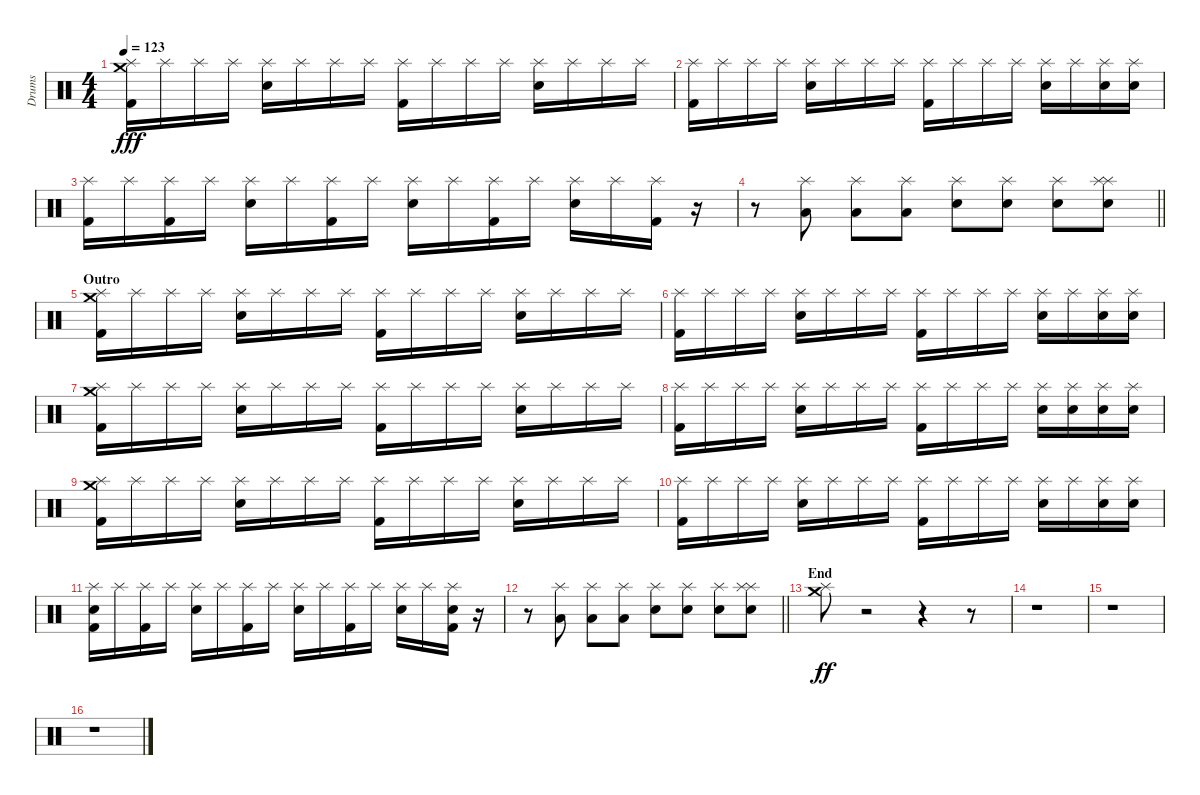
\track ("Drums" "Drums") {instrument percussion}
\staff {score}
\articulation defaults
\ts (4 4)
\tempo 123
\clef neutral
\ks c
("Crash medium (hit)" "Splash (hit)" "Kick (hit) 2").16{dy fff} "Splash (hit)".16 "Splash (hit)".16 "Splash (hit)".16 ("Splash (hit)" "Electric Snare (hit)").16 "Splash (hit)".16 "Splash (hit)".16 "Splash (hit)".16 ("Splash (hit)" "Kick (hit) 2").16 "Splash (hit)".16 "Splash (hit)".16 "Splash (hit)".16 ("Splash (hit)" "Electric Snare (hit)").16 "Splash (hit)".16 "Splash (hit)".16 "Splash (hit)".16 |
("Splash (hit)" "Kick (hit) 2").16 "Splash (hit)".16 "Splash (hit)".16 "Splash (hit)".16 ("Splash (hit)" "Electric Snare (hit)").16 "Splash (hit)".16 "Splash (hit)".16 "Splash (hit)".16 ("Splash (hit)" "Kick (hit) 2").16 "Splash (hit)".16 "Splash (hit)".16 "Splash (hit)".16 ("Splash (hit)" "Electric Snare (hit)").16 "Splash (hit)".16 ("Splash (hit)" "Electric Snare (hit)").16 ("Splash (hit)" "Electric Snare (hit)").16 |
("Splash (hit)" "Kick (hit) 2").16 "Splash (hit)".16 ("Splash (hit)" "Kick (hit) 2").16 "Splash (hit)".16 ("Splash (hit)" "Electric Snare (hit)").16 "Splash (hit)".16 ("Splash (hit)" "Kick (hit) 2").16 "Splash (hit)".16 ("Splash (hit)" "Electric Snare (hit)").16 "Splash (hit)".16 ("Splash (hit)" "Kick (hit) 2").16 "Splash (hit)".16 ("Splash (hit)" "Electric Snare (hit)").16 "Splash (hit)".16 ("Splash (hit)" "Kick (hit) 2").16 r.16 |
\barLineRight lightlight
r.8 ("Splash (hit)" "Low Floor Tom (hit)").8 ("Splash (hit)" "Low Floor Tom (hit)").8 ("Splash (hit)" "Low Floor Tom (hit)").8 ("Splash (hit)" "Electric Snare (hit)").8 ("Splash (hit)" "Electric Snare (hit)").8 ("Splash (hit)" "Electric Snare (hit)").8 ("Splash (hit)" "Splash (hit)" "Electric Snare (hit)").8 |
\section ("" "Outro")
("Crash medium (hit)" "Splash (hit)" "Kick (hit) 2").16 "Splash (hit)".16 "Splash (hit)".16 "Splash (hit)".16 ("Splash (hit)" "Electric Snare (hit)").16 "Splash (hit)".16 "Splash (hit)".16 "Splash (hit)".16 ("Splash (hit)" "Kick (hit) 2").16 "Splash (hit)".16 "Splash (hit)".16 "Splash (hit)".16 ("Splash (hit)" "Electric Snare (hit)").16 "Splash (hit)".16 "Splash (hit)".16 "Splash (hit)".16 |
("Splash (hit)" "Kick (hit) 2").16 "Splash (hit)".16 "Splash (hit)".16 "Splash (hit)".16 ("Splash (hit)" "Electric Snare (hit)").16 "Splash (hit)".16 "Splash (hit)".16 "Splash (hit)".16 ("Splash (hit)" "Kick (hit) 2").16 "Splash (hit)".16 "Splash (hit)".16 "Splash (hit)".16 ("Splash (hit)" "Electric Snare (hit)").16 "Splash (hit)".16 ("Splash (hit)" "Electric Snare (hit)").16 ("Splash (hit)" "Electric Snare (hit)").16 |
("Crash medium (hit)" "Splash (hit)" "Kick (hit) 2").16 "Splash (hit)".16 "Splash (hit)".16 "Splash (hit)".16 ("Splash (hit)" "Electric Snare (hit)").16 "Splash (hit)".16 "Splash (hit)".16 "Splash (hit)".16 ("Splash (hit)" "Kick (hit) 2").16 "Splash (hit)".16 "Splash (hit)".16 "Splash (hit)".16 ("Splash (hit)" "Electric Snare (hit)").16 "Splash (hit)".16 "Splash (hit)".16 "Splash (hit)".16 |
("Splash (hit)" "Kick (hit) 2").16 "Splash (hit)".16 "Splash (hit)".16 "Splash (hit)".16 ("Splash (hit)" "Electric Snare (hit)").16 "Splash (hit)".16 "Splash (hit)".16 "Splash (hit)".16 ("Splash (hit)" "Kick (hit) 2").16 "Splash (hit)".16 "Splash (hit)".16 "Splash (hit)".16 ("Splash (hit)" "Electric Snare (hit)").16 ("Splash (hit)" "Electric Snare (hit)").16 ("Splash (hit)" "Electric Snare (hit)").16 ("Splash (hit)" "Electric Snare (hit)").16 |
("Crash medium (hit)" "Splash (hit)" "Kick (hit) 2").16 "Splash (hit)".16 "Splash (hit)".16 "Splash (hit)".16 ("Splash (hit)" "Electric Snare (hit)").16 "Splash (hit)".16 "Splash (hit)".16 "Splash (hit)".16 ("Splash (hit)" "Kick (hit) 2").16 "Splash (hit)".16 "Splash (hit)".16 "Splash (hit)".16 ("Splash (hit)" "Electric Snare (hit)").16 "Splash (hit)".16 "Splash (hit)".16 "Splash (hit)".16 |
("Splash (hit)" "Kick (hit) 2").16 "Splash (hit)".16 "Splash (hit)".16 "Splash (hit)".16 ("Splash (hit)" "Electric Snare (hit)").16 "Splash (hit)".16 "Splash (hit)".16 "Splash (hit)".16 ("Splash (hit)" "Kick (hit) 2").16 "Splash (hit)".16 "Splash (hit)".16 "Splash (hit)".16 ("Splash (hit)" "Electric Snare (hit)").16 "Splash (hit)".16 ("Splash (hit)" "Electric Snare (hit)").16 ("Splash (hit)" "Electric Snare (hit)").16 |
("Splash (hit)" "Electric Snare (hit)" "Kick (hit) 2").16 "Splash (hit)".16 ("Splash (hit)" "Kick (hit) 2").16 "Splash (hit)".16 ("Splash (hit)" "Electric Snare (hit)").16 "Splash (hit)".16 ("Splash (hit)" "Kick (hit) 2").16 "Splash (hit)".16 ("Splash (hit)" "Electric Snare (hit)").16 "Splash (hit)".16 ("Splash (hit)" "Kick (hit) 2").16 "Splash (hit)".16 ("Splash (hit)" "Electric Snare (hit)").16 "Splash (hit)".16 ("Splash (hit)" "Electric Snare (hit)" "Kick (hit) 2").16 r.16 |
\barLineRight lightlight
r.8 ("Splash (hit)" "Low Floor Tom (hit)").8 ("Splash (hit)" "Low Floor Tom (hit)").8 ("Splash (hit)" "Low Floor Tom (hit)").8 ("Splash (hit)" "Electric Snare (hit)").8 ("Splash (hit)" "Electric Snare (hit)").8 ("Splash (hit)" "Electric Snare (hit)").8 ("Splash (hit)" "Splash (hit)" "Electric Snare (hit)").8 |
\section ("" "End")
("Crash medium (hit)" "Splash (hit)").8{dy ff} r.2 r.4 r.8 |
r.1 |
r.1 |
r.1
